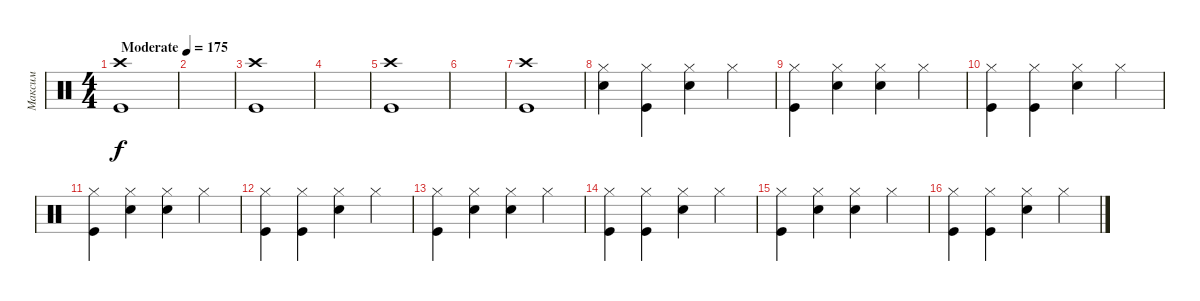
\track ("Максим" "Максим") {instrument percussion}
\staff {score}
\articulation defaults
\ts (4 4)
\tempo (175 "Moderate")
\clef neutral
\ks c
("Crash high (hit)" "Kick (hit)").1{dy f} |
|
("Crash high (hit)" "Kick (hit)").1 |
|
("Crash high (hit)" "Kick (hit)").1 |
|
("Crash high (hit)" "Kick (hit)").1 |
("Snare (hit)" "Hi-Hat (closed)").4 ("Kick (hit)" "Hi-Hat (closed)").4 ("Snare (hit) 2" "Hi-Hat (closed)").4 "Hi-Hat (closed)".4 |
("Hi-Hat (closed)" "Kick (hit)").4 ("Snare (hit)" "Hi-Hat (closed)").4 ("Snare (hit) 2" "Hi-Hat (closed)").4 "Hi-Hat (closed)".4 |
("Kick (hit)" "Hi-Hat (closed)").4 ("Kick (hit)" "Hi-Hat (closed)").4 ("Snare (hit) 2" "Hi-Hat (closed)").4 "Hi-Hat (closed)".4 |
("Hi-Hat (closed)" "Kick (hit)").4 ("Snare (hit)" "Hi-Hat (closed)").4 ("Snare (hit) 2" "Hi-Hat (closed)").4 "Hi-Hat (closed)".4 |
("Kick (hit)" "Hi-Hat (closed)").4 ("Kick (hit)" "Hi-Hat (closed)").4 ("Snare (hit) 2" "Hi-Hat (closed)").4 "Hi-Hat (closed)".4 |
("Hi-Hat (closed)" "Kick (hit)").4 ("Snare (hit)" "Hi-Hat (closed)").4 ("Snare (hit) 2" "Hi-Hat (closed)").4 "Hi-Hat (closed)".4 |
("Kick (hit)" "Hi-Hat (closed)").4 ("Kick (hit)" "Hi-Hat (closed)").4 ("Snare (hit) 2" "Hi-Hat (closed)").4 "Hi-Hat (closed)".4 |
("Hi-Hat (closed)" "Kick (hit)").4 ("Snare (hit)" "Hi-Hat (closed)").4 ("Snare (hit) 2" "Hi-Hat (closed)").4 "Hi-Hat (closed)".4 |
("Kick (hit)" "Hi-Hat (closed)").4 ("Kick (hit)" "Hi-Hat (closed)").4 ("Snare (hit) 2" "Hi-Hat (closed)").4 "Hi-Hat (closed)".4
